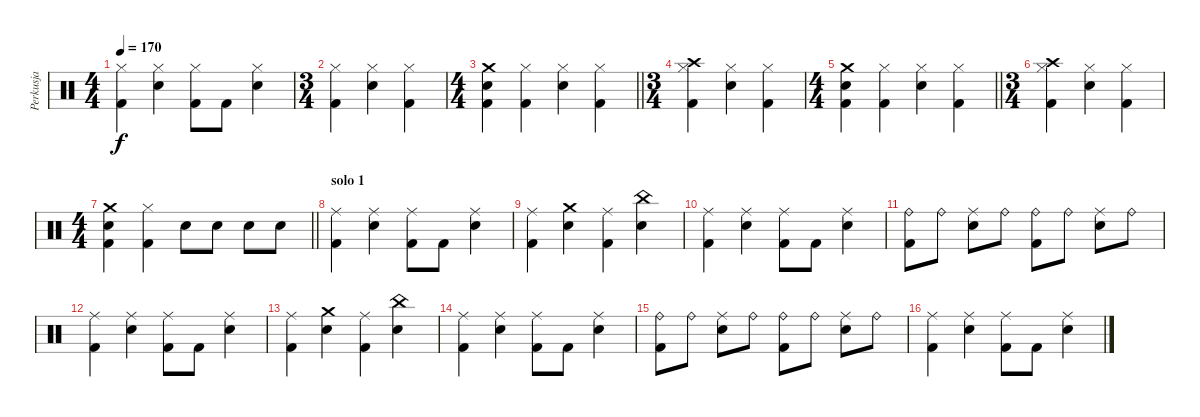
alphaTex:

\track ("Perkusja" "Perkusja") {instrument percussion}
\staff {score}
\articulation defaults
\ts (4 4)
\tempo 170
\clef neutral
\ks c
("Hi-Hat (closed)" "Kick (hit) 2").4{dy f} ("Hi-Hat (closed)" "Snare (hit) 2").4 ("Hi-Hat (closed)" "Kick (hit) 2").8 "Kick (hit) 2".8 ("Hi-Hat (closed)" "Snare (hit) 2").4 |
\ts (3 4)
("Hi-Hat (closed)" "Kick (hit) 2").4 ("Hi-Hat (closed)" "Snare (hit) 2").4 ("Hi-Hat (closed)" "Kick (hit) 2").4 |
\ts (4 4)
\barLineRight lightlight
("Crash medium (hit)" "Kick (hit) 2" "Snare (hit) 2").4 ("Hi-Hat (closed)" "Kick (hit) 2").4 ("Hi-Hat (closed)" "Snare (hit) 2").4 ("Hi-Hat (closed)" "Kick (hit) 2").4 |
\ts (3 4)
("Hi-Hat (closed)" "Kick (hit) 2" "Crash high (hit)").4 ("Hi-Hat (closed)" "Snare (hit) 2").4 ("Hi-Hat (closed)" "Kick (hit) 2").4 |
\ts (4 4)
\barLineRight lightlight
("Crash medium (hit)" "Kick (hit) 2" "Snare (hit) 2").4 ("Hi-Hat (closed)" "Kick (hit) 2").4 ("Hi-Hat (closed)" "Snare (hit) 2").4 ("Hi-Hat (closed)" "Kick (hit) 2").4 |
\ts (3 4)
("Hi-Hat (closed)" "Kick (hit) 2" "Crash high (hit)").4 ("Hi-Hat (closed)" "Snare (hit) 2").4 ("Hi-Hat (closed)" "Kick (hit) 2").4 |
\ts (4 4)
\barLineRight lightlight
("Crash medium (hit)" "Kick (hit) 2" "Snare (hit) 2").4 ("Hi-Hat (closed)" "Kick (hit) 2").4 "Snare (hit) 2".8 "Snare (hit) 2".8 "Snare (hit) 2".8 "Snare (hit) 2".8 |
\section ("" "solo 1")
("Ride (middle)" "Kick (hit) 2").4 ("Ride (middle)" "Snare (hit) 2").4 ("Ride (middle)" "Kick (hit) 2").8 "Kick (hit) 2".8 ("Ride (middle)" "Snare (hit) 2").4 |
("Ride (middle)" "Kick (hit) 2").4 ("Crash medium (hit)" "Snare (hit) 2").4 ("Ride (middle)" "Kick (hit) 2").4 ("China (hit)" "Snare (hit) 2").4 |
("Ride (middle)" "Kick (hit) 2").4 ("Ride (middle)" "Snare (hit) 2").4 ("Ride (middle)" "Kick (hit) 2").8 "Kick (hit) 2".8 ("Ride (middle)" "Snare (hit) 2").4 |
("Ride (bell)" "Kick (hit) 2").8 "Ride (bell)".8 ("Ride (middle)" "Snare (hit) 2").8 "Ride (bell)".8 ("Ride (bell)" "Kick (hit) 2").8 "Ride (bell)".8 ("Ride (middle)" "Snare (hit) 2").8 "Ride (bell)".8 |
("Ride (middle)" "Kick (hit) 2").4 ("Ride (middle)" "Snare (hit) 2").4 ("Ride (middle)" "Kick (hit) 2").8 "Kick (hit) 2".8 ("Ride (middle)" "Snare (hit) 2").4 |
("Ride (middle)" "Kick (hit) 2").4 ("Crash medium (hit)" "Snare (hit) 2").4 ("Ride (middle)" "Kick (hit) 2").4 ("China (hit)" "Snare (hit) 2").4 |
("Ride (middle)" "Kick (hit) 2").4 ("Ride (middle)" "Snare (hit) 2").4 ("Ride (middle)" "Kick (hit) 2").8 "Kick (hit) 2".8 ("Ride (middle)" "Snare (hit) 2").4 |
("Ride (bell)" "Kick (hit) 2").8 "Ride (bell)".8 ("Ride (middle)" "Snare (hit) 2").8 "Ride (bell)".8 ("Ride (bell)" "Kick (hit) 2").8 "Ride (bell)".8 ("Ride (middle)" "Snare (hit) 2").8 "Ride (bell)".8 |
("Ride (middle)" "Kick (hit) 2").4 ("Ride (middle)" "Snare (hit) 2").4 ("Ride (middle)" "Kick (hit) 2").8 "Kick (hit) 2".8 ("Ride (middle)" "Snare (hit) 2").4
